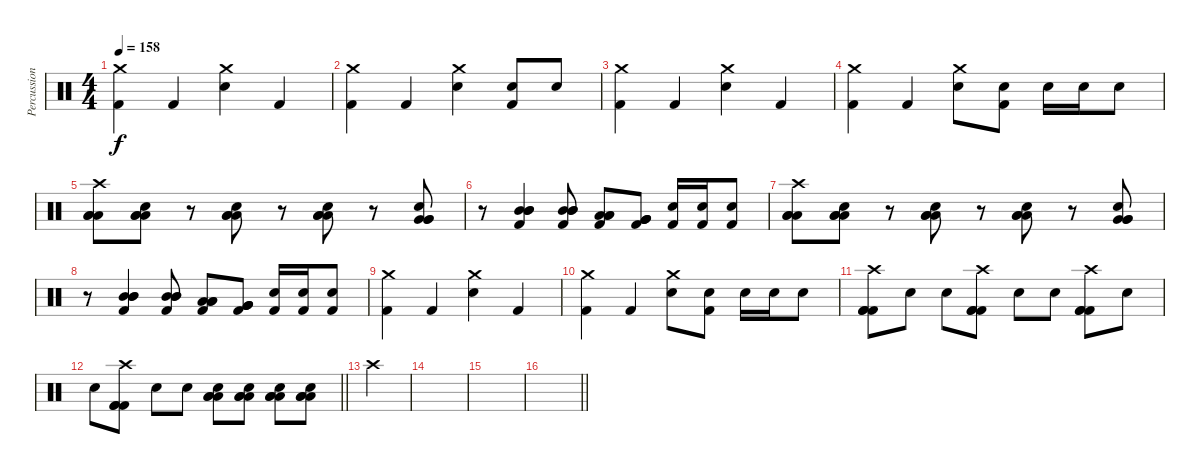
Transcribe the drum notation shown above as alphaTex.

\track ("Percussion" "Percussion") {instrument percussion}
\staff {score}
\articulation defaults
\ts (4 4)
\tempo 158
\clef neutral
\ks c
("Crash medium (hit)" "Kick (hit) 2").4{dy f} "Kick (hit) 2".4 ("Crash medium (hit)" "Electric Snare (hit)").4 "Kick (hit) 2".4 |
("Crash medium (hit)" "Kick (hit) 2").4 "Kick (hit) 2".4 ("Crash medium (hit)" "Electric Snare (hit)").4 ("Electric Snare (hit)" "Kick (hit) 2").8 "Electric Snare (hit)".8 |
("Crash medium (hit)" "Kick (hit) 2").4 "Kick (hit) 2".4 ("Crash medium (hit)" "Electric Snare (hit)").4 "Kick (hit) 2".4 |
("Crash medium (hit)" "Kick (hit) 2").4 "Kick (hit) 2".4 ("Crash medium (hit)" "Electric Snare (hit)").8 ("Electric Snare (hit)" "Kick (hit) 2").8 "Electric Snare (hit)".16 "Electric Snare (hit)".16 "Electric Snare (hit)".8 |
("Low Floor Tom (hit)" "Low Floor Tom (hit)" "Low Floor Tom (hit)" "Crash high (hit)").8 ("Low Floor Tom (hit)" "Low Floor Tom (hit)" "Low Floor Tom (hit)" "Electric Snare (hit)").8 r.8 ("Low Floor Tom (hit)" "Low Floor Tom (hit)" "Low Floor Tom (hit)" "Electric Snare (hit)").8 r.8 ("Low Floor Tom (hit)" "Low Floor Tom (hit)" "Low Floor Tom (hit)" "Electric Snare (hit)").8 r.8 ("Very Low Tom (hit)" "Very Low Tom (hit)" "Very Low Tom (hit)" "Electric Snare (hit)").8 |
r.8 ("Mid Tom (hit)" "Mid Tom (hit)" "Mid Tom (hit)" "Kick (hit) 2").4 ("Mid Tom (hit)" "Mid Tom (hit)" "Mid Tom (hit)" "Kick (hit) 2").8 ("Low Floor Tom (hit)" "Low Floor Tom (hit)" "Low Floor Tom (hit)" "Kick (hit) 2").8 ("Very Low Tom (hit)" "Very Low Tom (hit)" "Very Low Tom (hit)" "Kick (hit) 2").8 ("Electric Snare (hit)" "Kick (hit) 2").16 ("Electric Snare (hit)" "Kick (hit) 2").16 ("Electric Snare (hit)" "Kick (hit) 2").8 |
("Low Floor Tom (hit)" "Low Floor Tom (hit)" "Low Floor Tom (hit)" "Crash high (hit)").8 ("Low Floor Tom (hit)" "Low Floor Tom (hit)" "Low Floor Tom (hit)" "Electric Snare (hit)").8 r.8 ("Low Floor Tom (hit)" "Low Floor Tom (hit)" "Low Floor Tom (hit)" "Electric Snare (hit)").8 r.8 ("Low Floor Tom (hit)" "Low Floor Tom (hit)" "Low Floor Tom (hit)" "Electric Snare (hit)").8 r.8 ("Very Low Tom (hit)" "Very Low Tom (hit)" "Very Low Tom (hit)" "Electric Snare (hit)").8 |
r.8 ("Mid Tom (hit)" "Mid Tom (hit)" "Mid Tom (hit)" "Kick (hit) 2").4 ("Mid Tom (hit)" "Mid Tom (hit)" "Mid Tom (hit)" "Kick (hit) 2").8 ("Low Floor Tom (hit)" "Low Floor Tom (hit)" "Low Floor Tom (hit)" "Kick (hit) 2").8 ("Very Low Tom (hit)" "Very Low Tom (hit)" "Very Low Tom (hit)" "Kick (hit) 2").8 ("Electric Snare (hit)" "Kick (hit) 2").16 ("Electric Snare (hit)" "Kick (hit) 2").16 ("Electric Snare (hit)" "Kick (hit) 2").8 |
("Crash medium (hit)" "Kick (hit) 2").4 "Kick (hit) 2".4 ("Crash medium (hit)" "Electric Snare (hit)").4 "Kick (hit) 2".4 |
("Crash medium (hit)" "Kick (hit) 2").4 "Kick (hit) 2".4 ("Crash medium (hit)" "Electric Snare (hit)").8 ("Electric Snare (hit)" "Kick (hit) 2").8 "Electric Snare (hit)".16 "Electric Snare (hit)".16 "Electric Snare (hit)".8 |
("Crash high (hit)" "Kick (hit) 2" "Kick (hit) 2" "Kick (hit) 2").8 "Electric Snare (hit)".8 "Electric Snare (hit)".8 ("Crash high (hit)" "Kick (hit) 2" "Kick (hit) 2" "Kick (hit) 2").8 "Electric Snare (hit)".8 "Electric Snare (hit)".8 ("Crash high (hit)" "Kick (hit) 2" "Kick (hit) 2" "Kick (hit) 2").8 "Electric Snare (hit)".8 |
\barLineRight lightlight "Electric Snare (hit)".8
("Crash high (hit)" "Kick (hit) 2" "Kick (hit) 2" "Kick (hit) 2").8 "Electric Snare (hit)".8 "Electric Snare (hit)".8 ("Low Floor Tom (hit)" "Low Floor Tom (hit)" "Low Floor Tom (hit)" "Electric Snare (hit)").8 ("Low Floor Tom (hit)" "Low Floor Tom (hit)" "Low Floor Tom (hit)" "Electric Snare (hit)").8 ("Low Floor Tom (hit)" "Low Floor Tom (hit)" "Low Floor Tom (hit)" "Electric Snare (hit)").8 ("Low Floor Tom (hit)" "Low Floor Tom (hit)" "Low Floor Tom (hit)" "Electric Snare (hit)").8 |
"Crash high (hit)".4 |
|
|
\barLineRight lightlight
